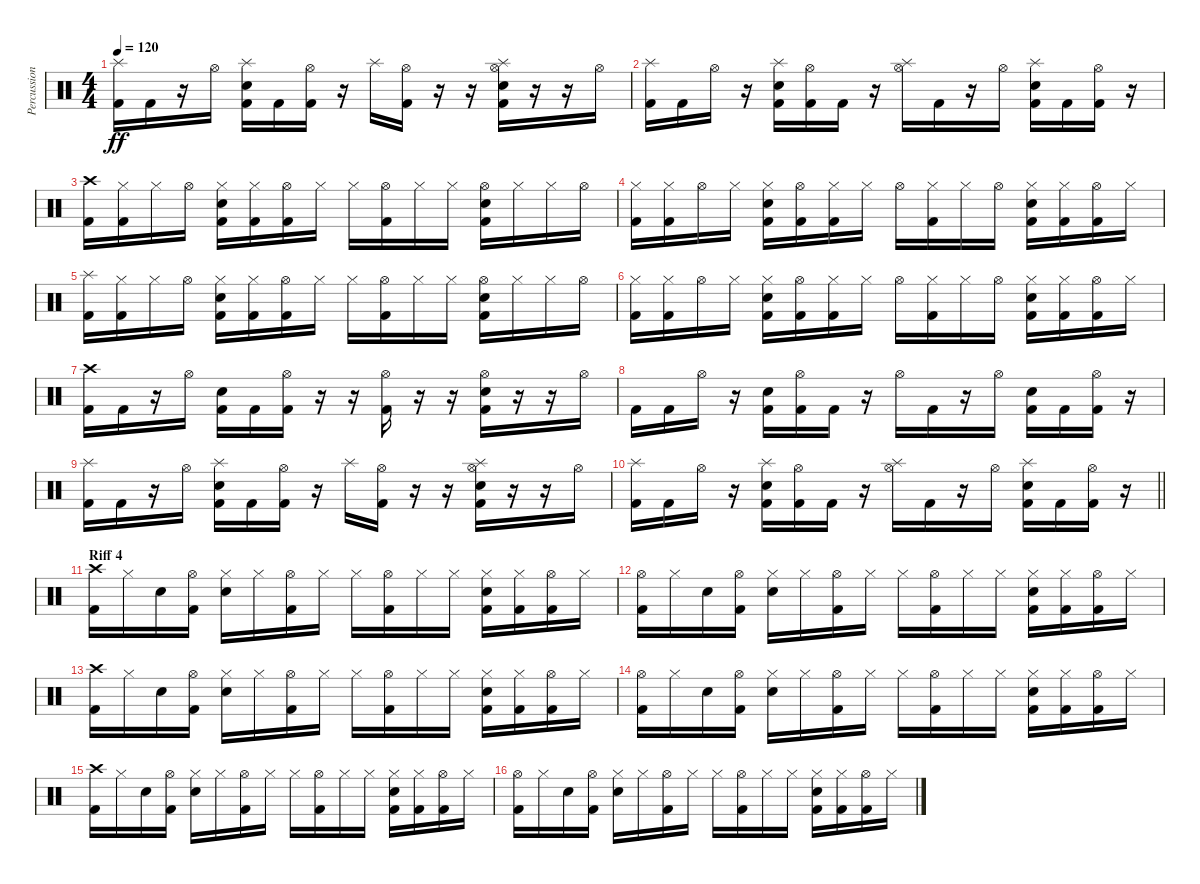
\track ("Percussion" "Percussion") {instrument percussion}
\staff {score}
\articulation defaults
\ts (4 4)
\tempo 120
\clef neutral
\ks c
("Splash (hit)" "Kick (hit) 2").16{dy ff} "Kick (hit) 2".16 r.16 "Hi-Hat (open)".16 ("Splash (hit)" "Electric Snare (hit)" "Kick (hit) 2").16 "Kick (hit) 2".16 ("Hi-Hat (open)" "Kick (hit) 2").16 r.16 "Splash (hit)".16 ("Hi-Hat (open)" "Kick (hit) 2").16 r.16 r.16 ("Splash (hit)" "Hi-Hat (open)" "Electric Snare (hit)" "Kick (hit) 2").16 r.16 r.16 "Hi-Hat (open)".16 |
("Splash (hit)" "Kick (hit) 2").16 "Kick (hit) 2".16 "Hi-Hat (open)".16 r.16 ("Splash (hit)" "Electric Snare (hit)" "Kick (hit) 2").16 ("Hi-Hat (open)" "Kick (hit) 2").16 "Kick (hit) 2".16 r.16 ("Splash (hit)" "Hi-Hat (open)").16 "Kick (hit) 2".16 r.16 "Hi-Hat (open)".16 ("Splash (hit)" "Electric Snare (hit)" "Kick (hit) 2").16 "Kick (hit) 2".16 ("Hi-Hat (open)" "Kick (hit) 2").16 r.16 |
("Crash high (hit)" "Kick (hit) 2").16 ("Hi-Hat (closed)" "Kick (hit) 2").16 "Hi-Hat (closed)".16 "Hi-Hat (open)".16 ("Hi-Hat (closed)" "Electric Snare (hit)" "Kick (hit) 2").16 ("Hi-Hat (closed)" "Kick (hit) 2").16 ("Hi-Hat (open)" "Kick (hit) 2").16 "Hi-Hat (closed)".16 "Hi-Hat (closed)".16 ("Hi-Hat (open)" "Kick (hit) 2").16 "Hi-Hat (closed)".16 "Hi-Hat (closed)".16 ("Hi-Hat (open)" "Electric Snare (hit)" "Kick (hit) 2").16 "Hi-Hat (closed)".16 "Hi-Hat (closed)".16 "Hi-Hat (open)".16 |
("Hi-Hat (closed)" "Kick (hit) 2").16 ("Hi-Hat (closed)" "Kick (hit) 2").16 "Hi-Hat (open)".16 "Hi-Hat (closed)".16 ("Hi-Hat (closed)" "Electric Snare (hit)" "Kick (hit) 2").16 ("Hi-Hat (open)" "Kick (hit) 2").16 ("Hi-Hat (closed)" "Kick (hit) 2").16 "Hi-Hat (closed)".16 "Hi-Hat (open)".16 ("Hi-Hat (closed)" "Kick (hit) 2").16 "Hi-Hat (closed)".16 "Hi-Hat (open)".16 ("Hi-Hat (closed)" "Electric Snare (hit)" "Kick (hit) 2").16 ("Hi-Hat (closed)" "Kick (hit) 2").16 ("Hi-Hat (open)" "Kick (hit) 2").16 "Hi-Hat (closed)".16 |
("Splash (hit)" "Kick (hit) 2").16 ("Hi-Hat (closed)" "Kick (hit) 2").16 "Hi-Hat (closed)".16 "Hi-Hat (open)".16 ("Hi-Hat (closed)" "Electric Snare (hit)" "Kick (hit) 2").16 ("Hi-Hat (closed)" "Kick (hit) 2").16 ("Hi-Hat (open)" "Kick (hit) 2").16 "Hi-Hat (closed)".16 "Hi-Hat (closed)".16 ("Hi-Hat (open)" "Kick (hit) 2").16 "Hi-Hat (closed)".16 "Hi-Hat (closed)".16 ("Hi-Hat (open)" "Electric Snare (hit)" "Kick (hit) 2").16 "Hi-Hat (closed)".16 "Hi-Hat (closed)".16 "Hi-Hat (open)".16 |
("Hi-Hat (closed)" "Kick (hit) 2").16 ("Hi-Hat (closed)" "Kick (hit) 2").16 "Hi-Hat (open)".16 "Hi-Hat (closed)".16 ("Hi-Hat (closed)" "Electric Snare (hit)" "Kick (hit) 2").16 ("Hi-Hat (open)" "Kick (hit) 2").16 ("Hi-Hat (closed)" "Kick (hit) 2").16 "Hi-Hat (closed)".16 "Hi-Hat (open)".16 ("Hi-Hat (closed)" "Kick (hit) 2").16 "Hi-Hat (closed)".16 "Hi-Hat (open)".16 ("Hi-Hat (closed)" "Electric Snare (hit)" "Kick (hit) 2").16 ("Hi-Hat (closed)" "Kick (hit) 2").16 ("Hi-Hat (open)" "Kick (hit) 2").16 "Hi-Hat (closed)".16 |
("Crash high (hit)" "Kick (hit) 2").16 "Kick (hit) 2".16 r.16 "Hi-Hat (open)".16 ("Electric Snare (hit)" "Kick (hit) 2").16 "Kick (hit) 2".16 ("Hi-Hat (open)" "Kick (hit) 2").16 r.16 r.16 ("Hi-Hat (open)" "Kick (hit) 2").16 r.16 r.16 ("Hi-Hat (open)" "Electric Snare (hit)" "Kick (hit) 2").16 r.16 r.16 "Hi-Hat (open)".16 |
"Kick (hit) 2".16 "Kick (hit) 2".16 "Hi-Hat (open)".16 r.16 ("Electric Snare (hit)" "Kick (hit) 2").16 ("Hi-Hat (open)" "Kick (hit) 2").16 "Kick (hit) 2".16 r.16 "Hi-Hat (open)".16 "Kick (hit) 2".16 r.16 "Hi-Hat (open)".16 ("Electric Snare (hit)" "Kick (hit) 2").16 "Kick (hit) 2".16 ("Hi-Hat (open)" "Kick (hit) 2").16 r.16 |
("Splash (hit)" "Kick (hit) 2").16 "Kick (hit) 2".16 r.16 "Hi-Hat (open)".16 ("Splash (hit)" "Electric Snare (hit)" "Kick (hit) 2").16 "Kick (hit) 2".16 ("Hi-Hat (open)" "Kick (hit) 2").16 r.16 "Splash (hit)".16 ("Hi-Hat (open)" "Kick (hit) 2").16 r.16 r.16 ("Splash (hit)" "Hi-Hat (open)" "Electric Snare (hit)" "Kick (hit) 2").16 r.16 r.16 "Hi-Hat (open)".16 |
\barLineRight lightlight
("Splash (hit)" "Kick (hit) 2").16 "Kick (hit) 2".16 "Hi-Hat (open)".16 r.16 ("Splash (hit)" "Electric Snare (hit)" "Kick (hit) 2").16 ("Hi-Hat (open)" "Kick (hit) 2").16 "Kick (hit) 2".16 r.16 ("Splash (hit)" "Hi-Hat (open)").16 "Kick (hit) 2".16 r.16 "Hi-Hat (open)".16 ("Splash (hit)" "Electric Snare (hit)" "Kick (hit) 2").16 "Kick (hit) 2".16 ("Hi-Hat (open)" "Kick (hit) 2").16 r.16 |
\section ("" "Riff 4")
("Crash high (hit)" "Kick (hit) 2").16 "Hi-Hat (closed)".16 "Snare (hit)".16 ("Hi-Hat (open)" "Kick (hit) 2").16 ("Hi-Hat (closed)" "Electric Snare (hit)").16 "Hi-Hat (closed)".16 ("Hi-Hat (open)" "Kick (hit) 2").16 "Hi-Hat (closed)".16 "Hi-Hat (closed)".16 ("Hi-Hat (open)" "Kick (hit) 2").16 "Hi-Hat (closed)".16 "Hi-Hat (closed)".16 ("Hi-Hat (closed)" "Electric Snare (hit)" "Kick (hit) 2").16 ("Hi-Hat (closed)" "Kick (hit) 2").16 ("Hi-Hat (open)" "Kick (hit) 2").16 "Hi-Hat (closed)".16 |
("Hi-Hat (open)" "Kick (hit) 2").16 "Hi-Hat (closed)".16 "Snare (hit)".16 ("Hi-Hat (open)" "Kick (hit) 2").16 ("Hi-Hat (closed)" "Electric Snare (hit)").16 "Hi-Hat (closed)".16 ("Hi-Hat (open)" "Kick (hit) 2").16 "Hi-Hat (closed)".16 "Hi-Hat (closed)".16 ("Hi-Hat (open)" "Kick (hit) 2").16 "Hi-Hat (closed)".16 "Hi-Hat (closed)".16 ("Hi-Hat (closed)" "Electric Snare (hit)" "Kick (hit) 2").16 ("Hi-Hat (closed)" "Kick (hit) 2").16 ("Hi-Hat (open)" "Kick (hit) 2").16 "Hi-Hat (closed)".16 |
("Crash high (hit)" "Kick (hit) 2").16 "Hi-Hat (closed)".16 "Snare (hit)".16 ("Hi-Hat (open)" "Kick (hit) 2").16 ("Hi-Hat (closed)" "Electric Snare (hit)").16 "Hi-Hat (closed)".16 ("Hi-Hat (open)" "Kick (hit) 2").16 "Hi-Hat (closed)".16 "Hi-Hat (closed)".16 ("Hi-Hat (open)" "Kick (hit) 2").16 "Hi-Hat (closed)".16 "Hi-Hat (closed)".16 ("Hi-Hat (closed)" "Electric Snare (hit)" "Kick (hit) 2").16 ("Hi-Hat (closed)" "Kick (hit) 2").16 ("Hi-Hat (open)" "Kick (hit) 2").16 "Hi-Hat (closed)".16 |
("Hi-Hat (open)" "Kick (hit) 2").16 "Hi-Hat (closed)".16 "Snare (hit)".16 ("Hi-Hat (open)" "Kick (hit) 2").16 ("Hi-Hat (closed)" "Electric Snare (hit)").16 "Hi-Hat (closed)".16 ("Hi-Hat (open)" "Kick (hit) 2").16 "Hi-Hat (closed)".16 "Hi-Hat (closed)".16 ("Hi-Hat (open)" "Kick (hit) 2").16 "Hi-Hat (closed)".16 "Hi-Hat (closed)".16 ("Hi-Hat (closed)" "Electric Snare (hit)" "Kick (hit) 2").16 ("Hi-Hat (closed)" "Kick (hit) 2").16 ("Hi-Hat (open)" "Kick (hit) 2").16 "Hi-Hat (closed)".16 |
("Crash high (hit)" "Kick (hit) 2").16 "Hi-Hat (closed)".16 "Snare (hit)".16 ("Hi-Hat (open)" "Kick (hit) 2").16 ("Hi-Hat (closed)" "Electric Snare (hit)").16 "Hi-Hat (closed)".16 ("Hi-Hat (open)" "Kick (hit) 2").16 "Hi-Hat (closed)".16 "Hi-Hat (closed)".16 ("Hi-Hat (open)" "Kick (hit) 2").16 "Hi-Hat (closed)".16 "Hi-Hat (closed)".16 ("Hi-Hat (closed)" "Electric Snare (hit)" "Kick (hit) 2").16 ("Hi-Hat (closed)" "Kick (hit) 2").16 ("Hi-Hat (open)" "Kick (hit) 2").16 "Hi-Hat (closed)".16 |
("Hi-Hat (open)" "Kick (hit) 2").16 "Hi-Hat (closed)".16 "Snare (hit)".16 ("Hi-Hat (open)" "Kick (hit) 2").16 ("Hi-Hat (closed)" "Electric Snare (hit)").16 "Hi-Hat (closed)".16 ("Hi-Hat (open)" "Kick (hit) 2").16 "Hi-Hat (closed)".16 "Hi-Hat (closed)".16 ("Hi-Hat (open)" "Kick (hit) 2").16 "Hi-Hat (closed)".16 "Hi-Hat (closed)".16 ("Hi-Hat (closed)" "Electric Snare (hit)" "Kick (hit) 2").16 ("Hi-Hat (closed)" "Kick (hit) 2").16 ("Hi-Hat (open)" "Kick (hit) 2").16 "Hi-Hat (closed)".16
